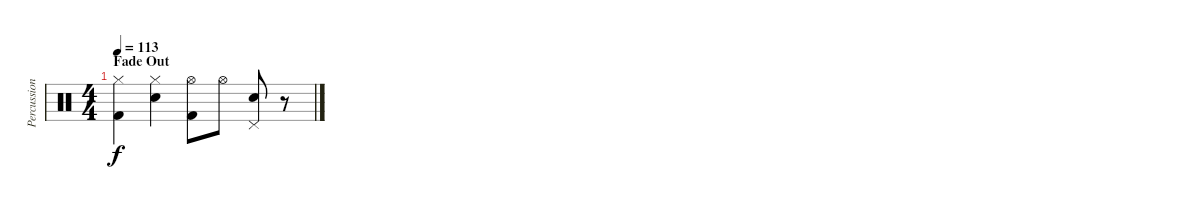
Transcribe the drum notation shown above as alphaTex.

\track ("Percussion" "Percussion") {instrument percussion bank 3}
\staff {score}
\articulation defaults
\ts (4 4)
\section ("" "Fade Out")
\tempo 113
\clef neutral
\ks c
("Hi-Hat (closed)" "Kick (hit) 2").4{dy f} ("Hi-Hat (closed)" "Snare (hit) 2").4 ("Hi-Hat (open)" "Kick (hit) 2").8 "Hi-Hat (open)".8 ("Pedal Hi-Hat (hit)" "Snare (hit) 2").8 r.8
